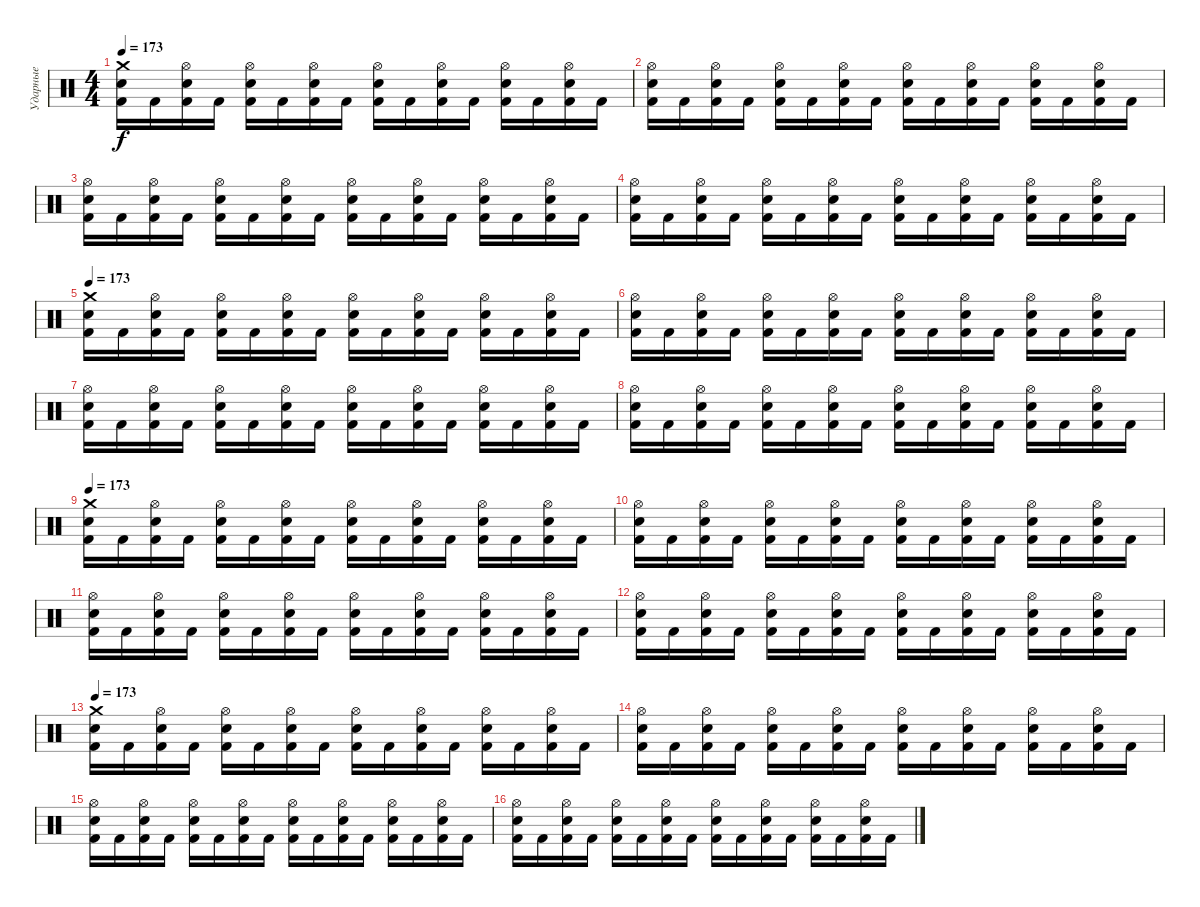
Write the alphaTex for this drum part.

\track ("Ударные" "Ударные") {instrument percussion}
\staff {score}
\articulation defaults
\ts (4 4)
\tempo 173
\clef neutral
\ks c
("Crash medium (hit)" "Electric Snare (hit)" "Kick (hit) 2").16{dy f} "Kick (hit) 2".16 ("Hi-Hat (open)" "Electric Snare (hit)" "Kick (hit) 2").16 "Kick (hit) 2".16 ("Hi-Hat (open)" "Electric Snare (hit)" "Kick (hit) 2").16 "Kick (hit) 2".16 ("Hi-Hat (open)" "Electric Snare (hit)" "Kick (hit) 2").16 "Kick (hit) 2".16 ("Hi-Hat (open)" "Electric Snare (hit)" "Kick (hit) 2").16 "Kick (hit) 2".16 ("Hi-Hat (open)" "Electric Snare (hit)" "Kick (hit) 2").16 "Kick (hit) 2".16 ("Hi-Hat (open)" "Electric Snare (hit)" "Kick (hit) 2").16 "Kick (hit) 2".16 ("Hi-Hat (open)" "Electric Snare (hit)" "Kick (hit) 2").16 "Kick (hit) 2".16 |
("Hi-Hat (open)" "Electric Snare (hit)" "Kick (hit) 2").16 "Kick (hit) 2".16 ("Hi-Hat (open)" "Electric Snare (hit)" "Kick (hit) 2").16 "Kick (hit) 2".16 ("Hi-Hat (open)" "Electric Snare (hit)" "Kick (hit) 2").16 "Kick (hit) 2".16 ("Hi-Hat (open)" "Electric Snare (hit)" "Kick (hit) 2").16 "Kick (hit) 2".16 ("Hi-Hat (open)" "Electric Snare (hit)" "Kick (hit) 2").16 "Kick (hit) 2".16 ("Hi-Hat (open)" "Electric Snare (hit)" "Kick (hit) 2").16 "Kick (hit) 2".16 ("Hi-Hat (open)" "Electric Snare (hit)" "Kick (hit) 2").16 "Kick (hit) 2".16 ("Hi-Hat (open)" "Electric Snare (hit)" "Kick (hit) 2").16 "Kick (hit) 2".16 |
("Hi-Hat (open)" "Electric Snare (hit)" "Kick (hit) 2").16 "Kick (hit) 2".16 ("Hi-Hat (open)" "Electric Snare (hit)" "Kick (hit) 2").16 "Kick (hit) 2".16 ("Hi-Hat (open)" "Electric Snare (hit)" "Kick (hit) 2").16 "Kick (hit) 2".16 ("Hi-Hat (open)" "Electric Snare (hit)" "Kick (hit) 2").16 "Kick (hit) 2".16 ("Hi-Hat (open)" "Electric Snare (hit)" "Kick (hit) 2").16 "Kick (hit) 2".16 ("Hi-Hat (open)" "Electric Snare (hit)" "Kick (hit) 2").16 "Kick (hit) 2".16 ("Hi-Hat (open)" "Electric Snare (hit)" "Kick (hit) 2").16 "Kick (hit) 2".16 ("Hi-Hat (open)" "Electric Snare (hit)" "Kick (hit) 2").16 "Kick (hit) 2".16 |
("Hi-Hat (open)" "Electric Snare (hit)" "Kick (hit) 2").16 "Kick (hit) 2".16 ("Hi-Hat (open)" "Electric Snare (hit)" "Kick (hit) 2").16 "Kick (hit) 2".16 ("Hi-Hat (open)" "Electric Snare (hit)" "Kick (hit) 2").16 "Kick (hit) 2".16 ("Hi-Hat (open)" "Electric Snare (hit)" "Kick (hit) 2").16 "Kick (hit) 2".16 ("Hi-Hat (open)" "Electric Snare (hit)" "Kick (hit) 2").16 "Kick (hit) 2".16 ("Hi-Hat (open)" "Electric Snare (hit)" "Kick (hit) 2").16 "Kick (hit) 2".16 ("Hi-Hat (open)" "Electric Snare (hit)" "Kick (hit) 2").16 "Kick (hit) 2".16 ("Hi-Hat (open)" "Electric Snare (hit)" "Kick (hit) 2").16 "Kick (hit) 2".16 |
\tempo 173
("Crash medium (hit)" "Electric Snare (hit)" "Kick (hit) 2").16 "Kick (hit) 2".16 ("Hi-Hat (open)" "Electric Snare (hit)" "Kick (hit) 2").16 "Kick (hit) 2".16 ("Hi-Hat (open)" "Electric Snare (hit)" "Kick (hit) 2").16 "Kick (hit) 2".16 ("Hi-Hat (open)" "Electric Snare (hit)" "Kick (hit) 2").16 "Kick (hit) 2".16 ("Hi-Hat (open)" "Electric Snare (hit)" "Kick (hit) 2").16 "Kick (hit) 2".16 ("Hi-Hat (open)" "Electric Snare (hit)" "Kick (hit) 2").16 "Kick (hit) 2".16 ("Hi-Hat (open)" "Electric Snare (hit)" "Kick (hit) 2").16 "Kick (hit) 2".16 ("Hi-Hat (open)" "Electric Snare (hit)" "Kick (hit) 2").16 "Kick (hit) 2".16 |
("Hi-Hat (open)" "Electric Snare (hit)" "Kick (hit) 2").16 "Kick (hit) 2".16 ("Hi-Hat (open)" "Electric Snare (hit)" "Kick (hit) 2").16 "Kick (hit) 2".16 ("Hi-Hat (open)" "Electric Snare (hit)" "Kick (hit) 2").16 "Kick (hit) 2".16 ("Hi-Hat (open)" "Electric Snare (hit)" "Kick (hit) 2").16 "Kick (hit) 2".16 ("Hi-Hat (open)" "Electric Snare (hit)" "Kick (hit) 2").16 "Kick (hit) 2".16 ("Hi-Hat (open)" "Electric Snare (hit)" "Kick (hit) 2").16 "Kick (hit) 2".16 ("Hi-Hat (open)" "Electric Snare (hit)" "Kick (hit) 2").16 "Kick (hit) 2".16 ("Hi-Hat (open)" "Electric Snare (hit)" "Kick (hit) 2").16 "Kick (hit) 2".16 |
("Hi-Hat (open)" "Electric Snare (hit)" "Kick (hit) 2").16 "Kick (hit) 2".16 ("Hi-Hat (open)" "Electric Snare (hit)" "Kick (hit) 2").16 "Kick (hit) 2".16 ("Hi-Hat (open)" "Electric Snare (hit)" "Kick (hit) 2").16 "Kick (hit) 2".16 ("Hi-Hat (open)" "Electric Snare (hit)" "Kick (hit) 2").16 "Kick (hit) 2".16 ("Hi-Hat (open)" "Electric Snare (hit)" "Kick (hit) 2").16 "Kick (hit) 2".16 ("Hi-Hat (open)" "Electric Snare (hit)" "Kick (hit) 2").16 "Kick (hit) 2".16 ("Hi-Hat (open)" "Electric Snare (hit)" "Kick (hit) 2").16 "Kick (hit) 2".16 ("Hi-Hat (open)" "Electric Snare (hit)" "Kick (hit) 2").16 "Kick (hit) 2".16 |
("Hi-Hat (open)" "Electric Snare (hit)" "Kick (hit) 2").16 "Kick (hit) 2".16 ("Hi-Hat (open)" "Electric Snare (hit)" "Kick (hit) 2").16 "Kick (hit) 2".16 ("Hi-Hat (open)" "Electric Snare (hit)" "Kick (hit) 2").16 "Kick (hit) 2".16 ("Hi-Hat (open)" "Electric Snare (hit)" "Kick (hit) 2").16 "Kick (hit) 2".16 ("Hi-Hat (open)" "Electric Snare (hit)" "Kick (hit) 2").16 "Kick (hit) 2".16 ("Hi-Hat (open)" "Electric Snare (hit)" "Kick (hit) 2").16 "Kick (hit) 2".16 ("Hi-Hat (open)" "Electric Snare (hit)" "Kick (hit) 2").16 "Kick (hit) 2".16 ("Hi-Hat (open)" "Electric Snare (hit)" "Kick (hit) 2").16 "Kick (hit) 2".16 |
\tempo 173
("Crash medium (hit)" "Electric Snare (hit)" "Kick (hit) 2").16 "Kick (hit) 2".16 ("Hi-Hat (open)" "Electric Snare (hit)" "Kick (hit) 2").16 "Kick (hit) 2".16 ("Hi-Hat (open)" "Electric Snare (hit)" "Kick (hit) 2").16 "Kick (hit) 2".16 ("Hi-Hat (open)" "Electric Snare (hit)" "Kick (hit) 2").16 "Kick (hit) 2".16 ("Hi-Hat (open)" "Electric Snare (hit)" "Kick (hit) 2").16 "Kick (hit) 2".16 ("Hi-Hat (open)" "Electric Snare (hit)" "Kick (hit) 2").16 "Kick (hit) 2".16 ("Hi-Hat (open)" "Electric Snare (hit)" "Kick (hit) 2").16 "Kick (hit) 2".16 ("Hi-Hat (open)" "Electric Snare (hit)" "Kick (hit) 2").16 "Kick (hit) 2".16 |
("Hi-Hat (open)" "Electric Snare (hit)" "Kick (hit) 2").16 "Kick (hit) 2".16 ("Hi-Hat (open)" "Electric Snare (hit)" "Kick (hit) 2").16 "Kick (hit) 2".16 ("Hi-Hat (open)" "Electric Snare (hit)" "Kick (hit) 2").16 "Kick (hit) 2".16 ("Hi-Hat (open)" "Electric Snare (hit)" "Kick (hit) 2").16 "Kick (hit) 2".16 ("Hi-Hat (open)" "Electric Snare (hit)" "Kick (hit) 2").16 "Kick (hit) 2".16 ("Hi-Hat (open)" "Electric Snare (hit)" "Kick (hit) 2").16 "Kick (hit) 2".16 ("Hi-Hat (open)" "Electric Snare (hit)" "Kick (hit) 2").16 "Kick (hit) 2".16 ("Hi-Hat (open)" "Electric Snare (hit)" "Kick (hit) 2").16 "Kick (hit) 2".16 |
("Hi-Hat (open)" "Electric Snare (hit)" "Kick (hit) 2").16 "Kick (hit) 2".16 ("Hi-Hat (open)" "Electric Snare (hit)" "Kick (hit) 2").16 "Kick (hit) 2".16 ("Hi-Hat (open)" "Electric Snare (hit)" "Kick (hit) 2").16 "Kick (hit) 2".16 ("Hi-Hat (open)" "Electric Snare (hit)" "Kick (hit) 2").16 "Kick (hit) 2".16 ("Hi-Hat (open)" "Electric Snare (hit)" "Kick (hit) 2").16 "Kick (hit) 2".16 ("Hi-Hat (open)" "Electric Snare (hit)" "Kick (hit) 2").16 "Kick (hit) 2".16 ("Hi-Hat (open)" "Electric Snare (hit)" "Kick (hit) 2").16 "Kick (hit) 2".16 ("Hi-Hat (open)" "Electric Snare (hit)" "Kick (hit) 2").16 "Kick (hit) 2".16 |
("Hi-Hat (open)" "Electric Snare (hit)" "Kick (hit) 2").16 "Kick (hit) 2".16 ("Hi-Hat (open)" "Electric Snare (hit)" "Kick (hit) 2").16 "Kick (hit) 2".16 ("Hi-Hat (open)" "Electric Snare (hit)" "Kick (hit) 2").16 "Kick (hit) 2".16 ("Hi-Hat (open)" "Electric Snare (hit)" "Kick (hit) 2").16 "Kick (hit) 2".16 ("Hi-Hat (open)" "Electric Snare (hit)" "Kick (hit) 2").16 "Kick (hit) 2".16 ("Hi-Hat (open)" "Electric Snare (hit)" "Kick (hit) 2").16 "Kick (hit) 2".16 ("Hi-Hat (open)" "Electric Snare (hit)" "Kick (hit) 2").16 "Kick (hit) 2".16 ("Hi-Hat (open)" "Electric Snare (hit)" "Kick (hit) 2").16 "Kick (hit) 2".16 |
\tempo 173
("Crash medium (hit)" "Electric Snare (hit)" "Kick (hit) 2").16 "Kick (hit) 2".16 ("Hi-Hat (open)" "Electric Snare (hit)" "Kick (hit) 2").16 "Kick (hit) 2".16 ("Hi-Hat (open)" "Electric Snare (hit)" "Kick (hit) 2").16 "Kick (hit) 2".16 ("Hi-Hat (open)" "Electric Snare (hit)" "Kick (hit) 2").16 "Kick (hit) 2".16 ("Hi-Hat (open)" "Electric Snare (hit)" "Kick (hit) 2").16 "Kick (hit) 2".16 ("Hi-Hat (open)" "Electric Snare (hit)" "Kick (hit) 2").16 "Kick (hit) 2".16 ("Hi-Hat (open)" "Electric Snare (hit)" "Kick (hit) 2").16 "Kick (hit) 2".16 ("Hi-Hat (open)" "Electric Snare (hit)" "Kick (hit) 2").16 "Kick (hit) 2".16 |
("Hi-Hat (open)" "Electric Snare (hit)" "Kick (hit) 2").16 "Kick (hit) 2".16 ("Hi-Hat (open)" "Electric Snare (hit)" "Kick (hit) 2").16 "Kick (hit) 2".16 ("Hi-Hat (open)" "Electric Snare (hit)" "Kick (hit) 2").16 "Kick (hit) 2".16 ("Hi-Hat (open)" "Electric Snare (hit)" "Kick (hit) 2").16 "Kick (hit) 2".16 ("Hi-Hat (open)" "Electric Snare (hit)" "Kick (hit) 2").16 "Kick (hit) 2".16 ("Hi-Hat (open)" "Electric Snare (hit)" "Kick (hit) 2").16 "Kick (hit) 2".16 ("Hi-Hat (open)" "Electric Snare (hit)" "Kick (hit) 2").16 "Kick (hit) 2".16 ("Hi-Hat (open)" "Electric Snare (hit)" "Kick (hit) 2").16 "Kick (hit) 2".16 |
("Hi-Hat (open)" "Electric Snare (hit)" "Kick (hit) 2").16 "Kick (hit) 2".16 ("Hi-Hat (open)" "Electric Snare (hit)" "Kick (hit) 2").16 "Kick (hit) 2".16 ("Hi-Hat (open)" "Electric Snare (hit)" "Kick (hit) 2").16 "Kick (hit) 2".16 ("Hi-Hat (open)" "Electric Snare (hit)" "Kick (hit) 2").16 "Kick (hit) 2".16 ("Hi-Hat (open)" "Electric Snare (hit)" "Kick (hit) 2").16 "Kick (hit) 2".16 ("Hi-Hat (open)" "Electric Snare (hit)" "Kick (hit) 2").16 "Kick (hit) 2".16 ("Hi-Hat (open)" "Electric Snare (hit)" "Kick (hit) 2").16 "Kick (hit) 2".16 ("Hi-Hat (open)" "Electric Snare (hit)" "Kick (hit) 2").16 "Kick (hit) 2".16 |
("Hi-Hat (open)" "Electric Snare (hit)" "Kick (hit) 2").16 "Kick (hit) 2".16 ("Hi-Hat (open)" "Electric Snare (hit)" "Kick (hit) 2").16 "Kick (hit) 2".16 ("Hi-Hat (open)" "Electric Snare (hit)" "Kick (hit) 2").16 "Kick (hit) 2".16 ("Hi-Hat (open)" "Electric Snare (hit)" "Kick (hit) 2").16 "Kick (hit) 2".16 ("Hi-Hat (open)" "Electric Snare (hit)" "Kick (hit) 2").16 "Kick (hit) 2".16 ("Hi-Hat (open)" "Electric Snare (hit)" "Kick (hit) 2").16 "Kick (hit) 2".16 ("Hi-Hat (open)" "Electric Snare (hit)" "Kick (hit) 2").16 "Kick (hit) 2".16 ("Hi-Hat (open)" "Electric Snare (hit)" "Kick (hit) 2").16 "Kick (hit) 2".16
